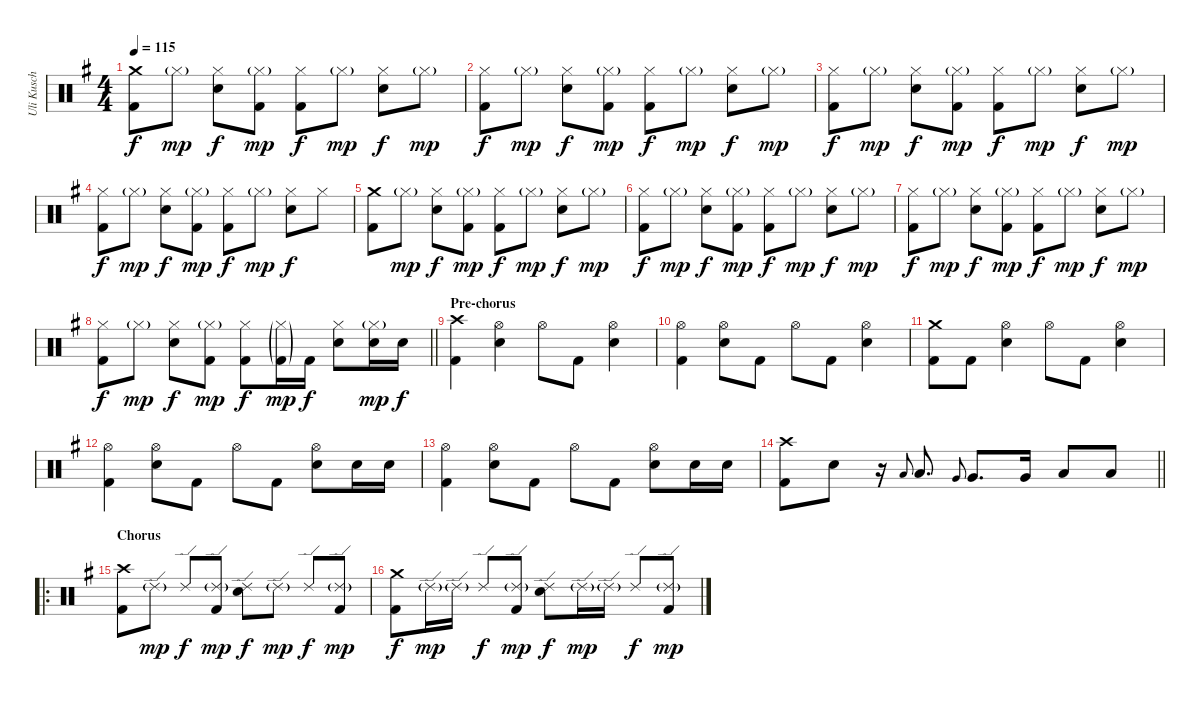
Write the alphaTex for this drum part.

\track ("Uli Kusch" "Uli Kusch") {instrument percussion}
\staff {score}
\articulation defaults
\ts (4 4)
\tempo 115
\clef neutral
\ks eminor
("Crash medium (hit)" "Kick (hit) 2").8{dy f} "Hi-Hat (closed)"{g}.8{dy mp} ("Hi-Hat (closed)" "Snare (hit) 2").8{dy f} ("Hi-Hat (closed)"{g} "Kick (hit) 2").8{dy mp} ("Hi-Hat (closed)" "Kick (hit) 2").8{dy f} "Hi-Hat (closed)"{g}.8{dy mp} ("Hi-Hat (closed)" "Snare (hit) 2").8{dy f} "Hi-Hat (closed)"{g}.8{dy mp} |
("Hi-Hat (closed)" "Kick (hit) 2").8{dy f} "Hi-Hat (closed)"{g}.8{dy mp} ("Hi-Hat (closed)" "Snare (hit) 2").8{dy f} ("Hi-Hat (closed)"{g} "Kick (hit) 2").8{dy mp} ("Hi-Hat (closed)" "Kick (hit) 2").8{dy f} "Hi-Hat (closed)"{g}.8{dy mp} ("Hi-Hat (closed)" "Snare (hit) 2").8{dy f} "Hi-Hat (closed)"{g}.8{dy mp} |
("Hi-Hat (closed)" "Kick (hit) 2").8{dy f} "Hi-Hat (closed)"{g}.8{dy mp} ("Hi-Hat (closed)" "Snare (hit) 2").8{dy f} ("Hi-Hat (closed)"{g} "Kick (hit) 2").8{dy mp} ("Hi-Hat (closed)" "Kick (hit) 2").8{dy f} "Hi-Hat (closed)"{g}.8{dy mp} ("Hi-Hat (closed)" "Snare (hit) 2").8{dy f} "Hi-Hat (closed)"{g}.8{dy mp} |
("Hi-Hat (closed)" "Kick (hit) 2").8{dy f} "Hi-Hat (closed)"{g}.8{dy mp} ("Hi-Hat (closed)" "Snare (hit) 2").8{dy f} ("Hi-Hat (closed)"{g} "Kick (hit) 2").8{dy mp} ("Hi-Hat (closed)" "Kick (hit) 2").8{dy f} "Hi-Hat (closed)"{g}.8{dy mp} ("Hi-Hat (closed)" "Snare (hit) 2").8{dy f} "Hi-Hat (closed)".8 |
("Crash medium (hit)" "Kick (hit) 2").8 "Hi-Hat (closed)"{g}.8{dy mp} ("Hi-Hat (closed)" "Snare (hit) 2").8{dy f} ("Hi-Hat (closed)"{g} "Kick (hit) 2").8{dy mp} ("Hi-Hat (closed)" "Kick (hit) 2").8{dy f} "Hi-Hat (closed)"{g}.8{dy mp} ("Hi-Hat (closed)" "Snare (hit) 2").8{dy f} "Hi-Hat (closed)"{g}.8{dy mp} |
("Hi-Hat (closed)" "Kick (hit) 2").8{dy f} "Hi-Hat (closed)"{g}.8{dy mp} ("Hi-Hat (closed)" "Snare (hit) 2").8{dy f} ("Hi-Hat (closed)"{g} "Kick (hit) 2").8{dy mp} ("Hi-Hat (closed)" "Kick (hit) 2").8{dy f} "Hi-Hat (closed)"{g}.8{dy mp} ("Hi-Hat (closed)" "Snare (hit) 2").8{dy f} "Hi-Hat (closed)"{g}.8{dy mp} |
("Hi-Hat (closed)" "Kick (hit) 2").8{dy f} "Hi-Hat (closed)"{g}.8{dy mp} ("Hi-Hat (closed)" "Snare (hit) 2").8{dy f} ("Hi-Hat (closed)"{g} "Kick (hit) 2").8{dy mp} ("Hi-Hat (closed)" "Kick (hit) 2").8{dy f} "Hi-Hat (closed)"{g}.8{dy mp} ("Hi-Hat (closed)" "Snare (hit) 2").8{dy f} "Hi-Hat (closed)"{g}.8{dy mp} |
\barLineRight lightlight
("Hi-Hat (closed)" "Kick (hit) 2").8{dy f} "Hi-Hat (closed)"{g}.8{dy mp} ("Hi-Hat (closed)" "Snare (hit) 2").8{dy f} ("Hi-Hat (closed)"{g} "Kick (hit) 2").8{dy mp} ("Hi-Hat (closed)" "Kick (hit) 2").8{dy f} ("Hi-Hat (closed)"{g} "Kick (hit) 2"{g}).16{dy mp} "Kick (hit) 2".16{dy f} ("Hi-Hat (closed)" "Snare (hit) 2").8 ("Hi-Hat (closed)"{g} "Snare (hit) 2").16{dy mp} "Snare (hit) 2".16{dy f} |
\section ("" "Pre-chorus")
("Crash high (hit)" "Kick (hit) 2").4 ("Hi-Hat (open)" "Snare (hit) 2").4 "Hi-Hat (open)".8 "Kick (hit) 2".8 ("Hi-Hat (open)" "Snare (hit) 2").4 |
("Hi-Hat (open)" "Kick (hit) 2").4 ("Hi-Hat (open)" "Snare (hit) 2").8 "Kick (hit) 2".8 "Hi-Hat (open)".8 "Kick (hit) 2".8 ("Hi-Hat (open)" "Snare (hit) 2").4 |
("Crash medium (hit)" "Kick (hit) 2").8 "Kick (hit) 2".8 ("Hi-Hat (open)" "Snare (hit) 2").4 "Hi-Hat (open)".8 "Kick (hit) 2".8 ("Hi-Hat (open)" "Snare (hit) 2").4 |
("Hi-Hat (open)" "Kick (hit) 2").4 ("Hi-Hat (open)" "Snare (hit) 2").8 "Kick (hit) 2".8 "Hi-Hat (open)".8 "Kick (hit) 2".8 ("Hi-Hat (open)" "Snare (hit) 2").8 "Snare (hit) 2".16 "Snare (hit) 2".16 |
("Hi-Hat (open)" "Kick (hit) 2").4 ("Hi-Hat (open)" "Snare (hit) 2").8 "Kick (hit) 2".8 "Hi-Hat (open)".8 "Kick (hit) 2".8 ("Hi-Hat (open)" "Snare (hit) 2").8 "Snare (hit) 2".16 "Snare (hit) 2".16 |
\barLineRight lightlight
("Crash high (hit)" "Kick (hit) 2").8 "Snare (hit) 2".8 r.16 "Low Tom (hit)".8{gr onbeat} "Low Tom (hit)".8{d} "Very Low Tom (hit)".8{gr onbeat} "Very Low Tom (hit)".8{d} "Very Low Tom (hit)".16 "Low Floor Tom (hit)".8 "Low Floor Tom (hit)".8 |
\ro
\section ("" "Chorus")
("Crash high (hit)" "Kick (hit) 2").8 "Ride (edge) 2"{g}.8{dy mp} "Ride (edge) 2".8{dy f} ("Ride (edge) 2"{g} "Kick (hit) 2").8{dy mp} ("Ride (edge) 2" "Snare (hit) 2").8{dy f} "Ride (edge) 2"{g}.8{dy mp} "Ride (edge) 2".8{dy f} ("Ride (edge) 2"{g} "Kick (hit) 2").8{dy mp} |
("Crash medium (hit)" "Kick (hit) 2").8{dy f} "Ride (edge) 2"{g}.16{dy mp} "Ride (edge) 2"{g}.16 "Ride (edge) 2".8{dy f} ("Ride (edge) 2"{g} "Kick (hit) 2").8{dy mp} ("Ride (edge) 2" "Snare (hit) 2").8{dy f} "Ride (edge) 2"{g}.16{dy mp} "Ride (edge) 2"{g}.16 "Ride (edge) 2".8{dy f} ("Ride (edge) 2"{g} "Kick (hit) 2").8{dy mp}
